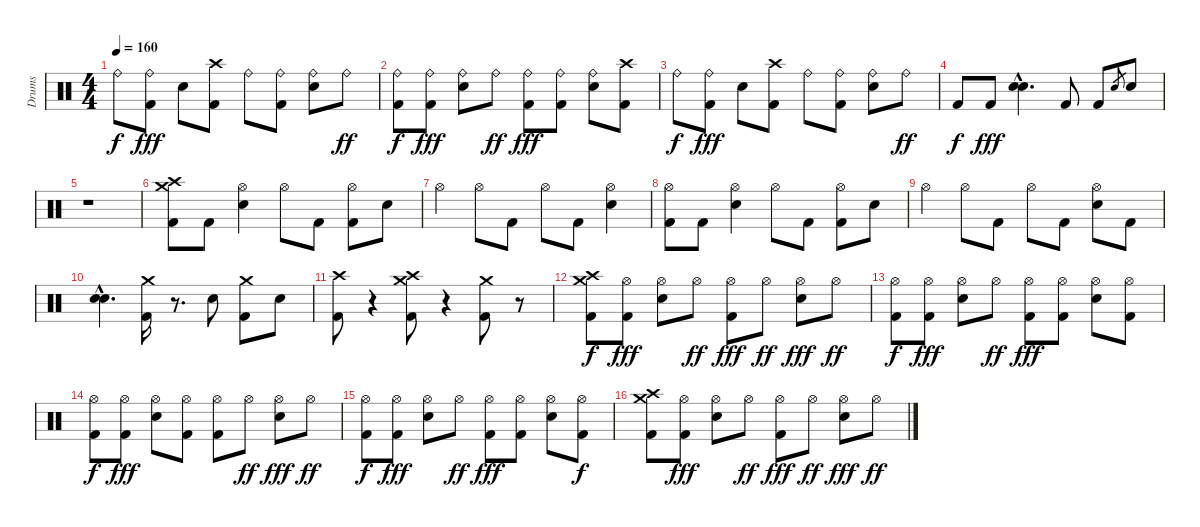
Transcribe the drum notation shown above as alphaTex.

\track ("Drums" "Drums") {instrument percussion}
\staff {score}
\articulation defaults
\ts (4 4)
\tempo 160
\clef neutral
\ks c "Ride (bell)".8{dy f}
("Ride (bell)" "Kick (hit) 2").8{dy fff} "Snare (hit) 2".8 ("Crash high (hit)" "Kick (hit) 2").8 "Ride (bell)".8 ("Ride (bell)" "Kick (hit) 2").8 ("Ride (bell)" "Snare (hit) 2").8 "Ride (bell)".8{dy ff} |
("Ride (bell)" "Kick (hit) 2").8{dy f} ("Ride (bell)" "Kick (hit) 2").8{dy fff} ("Ride (bell)" "Snare (hit) 2").8 "Ride (bell)".8{dy ff} ("Ride (bell)" "Kick (hit) 2").8{dy fff} ("Ride (bell)" "Kick (hit) 2").8 ("Ride (bell)" "Snare (hit) 2").8 ("Crash high (hit)" "Kick (hit) 2").8 |
"Ride (bell)".8{dy f} ("Ride (bell)" "Kick (hit) 2").8{dy fff} "Snare (hit) 2".8 ("Crash high (hit)" "Kick (hit) 2").8 "Ride (bell)".8 ("Ride (bell)" "Kick (hit) 2").8 ("Ride (bell)" "Snare (hit) 2").8 "Ride (bell)".8{dy ff} |
"Kick (hit) 2".8{dy f} "Kick (hit) 2".8{dy fff} ("Snare (hit) 2"{hac} "Snare (hit) 2").4{d} "Kick (hit) 2".8 "Kick (hit) 2".8 "Snare (hit) 2".8{gr} "Snare (hit) 2".8 |
r.1 |
("Crash medium (hit)" "Crash high (hit)" "Kick (hit) 2").8 "Kick (hit) 2".8 ("Hi-Hat (open)" "Snare (hit) 2").4 "Hi-Hat (open)".8 "Kick (hit) 2".8 ("Hi-Hat (open)" "Kick (hit) 2").8 "Snare (hit) 2".8 |
"Hi-Hat (open)".4 "Hi-Hat (open)".8 "Kick (hit) 2".8 "Hi-Hat (open)".8 "Kick (hit) 2".8 ("Hi-Hat (open)" "Snare (hit) 2").4 |
("Hi-Hat (open)" "Kick (hit) 2").8 "Kick (hit) 2".8 ("Hi-Hat (open)" "Snare (hit) 2").4 "Hi-Hat (open)".8 "Kick (hit) 2".8 ("Hi-Hat (open)" "Kick (hit) 2").8 "Snare (hit) 2".8 |
"Hi-Hat (open)".4 "Hi-Hat (open)".8 "Kick (hit) 2".8 "Hi-Hat (open)".8 "Kick (hit) 2".8 ("Hi-Hat (open)" "Snare (hit) 2").8 "Kick (hit) 2".8 |
("Snare (hit) 2"{hac} "Snare (hit) 2").4{d} ("Crash medium (hit)" "Kick (hit) 2").16 r.8{d} "Snare (hit) 2".8 ("Crash medium (hit)" "Kick (hit) 2").8 "Snare (hit) 2".8 |
("Crash high (hit)" "Kick (hit) 2").8 r.4 ("Crash medium (hit)" "Crash high (hit)" "Kick (hit) 2").8 r.4 ("Crash medium (hit)" "Kick (hit) 2").8 r.8 |
("Crash high (hit)" "Crash medium (hit)" "Kick (hit) 2").8{dy f} ("Hi-Hat (open)" "Kick (hit) 2").8{dy fff} ("Hi-Hat (open)" "Snare (hit) 2").8 "Hi-Hat (open)".8{dy ff} ("Hi-Hat (open)" "Kick (hit) 2").8{dy fff} "Hi-Hat (open)".8{dy ff} ("Hi-Hat (open)" "Snare (hit) 2").8{dy fff} "Hi-Hat (open)".8{dy ff} |
("Hi-Hat (open)" "Kick (hit) 2").8{dy f} ("Hi-Hat (open)" "Kick (hit) 2").8{dy fff} ("Hi-Hat (open)" "Snare (hit) 2").8 "Hi-Hat (open)".8{dy ff} ("Hi-Hat (open)" "Kick (hit) 2").8{dy fff} ("Hi-Hat (open)" "Kick (hit) 2").8 ("Hi-Hat (open)" "Snare (hit) 2").8 ("Hi-Hat (open)" "Kick (hit) 2").8 |
("Hi-Hat (open)" "Kick (hit) 2").8{dy f} ("Hi-Hat (open)" "Kick (hit) 2").8{dy fff} ("Hi-Hat (open)" "Snare (hit) 2").8 ("Hi-Hat (open)" "Kick (hit) 2").8 ("Hi-Hat (open)" "Kick (hit) 2").8 "Hi-Hat (open)".8{dy ff} ("Hi-Hat (open)" "Snare (hit) 2").8{dy fff} "Hi-Hat (open)".8{dy ff} |
("Hi-Hat (open)" "Kick (hit) 2").8{dy f} ("Hi-Hat (open)" "Kick (hit) 2").8{dy fff} ("Hi-Hat (open)" "Snare (hit) 2").8 "Hi-Hat (open)".8{dy ff} ("Hi-Hat (open)" "Kick (hit) 2").8{dy fff} ("Hi-Hat (open)" "Kick (hit) 2").8 ("Hi-Hat (open)" "Snare (hit) 2").8 ("Hi-Hat (open)" "Kick (hit) 2").8{dy f} |
("Crash high (hit)" "Crash medium (hit)" "Kick (hit) 2").8 ("Hi-Hat (open)" "Kick (hit) 2").8{dy fff} ("Hi-Hat (open)" "Snare (hit) 2").8 "Hi-Hat (open)".8{dy ff} ("Hi-Hat (open)" "Kick (hit) 2").8{dy fff} "Hi-Hat (open)".8{dy ff} ("Hi-Hat (open)" "Snare (hit) 2").8{dy fff} "Hi-Hat (open)".8{dy ff}
